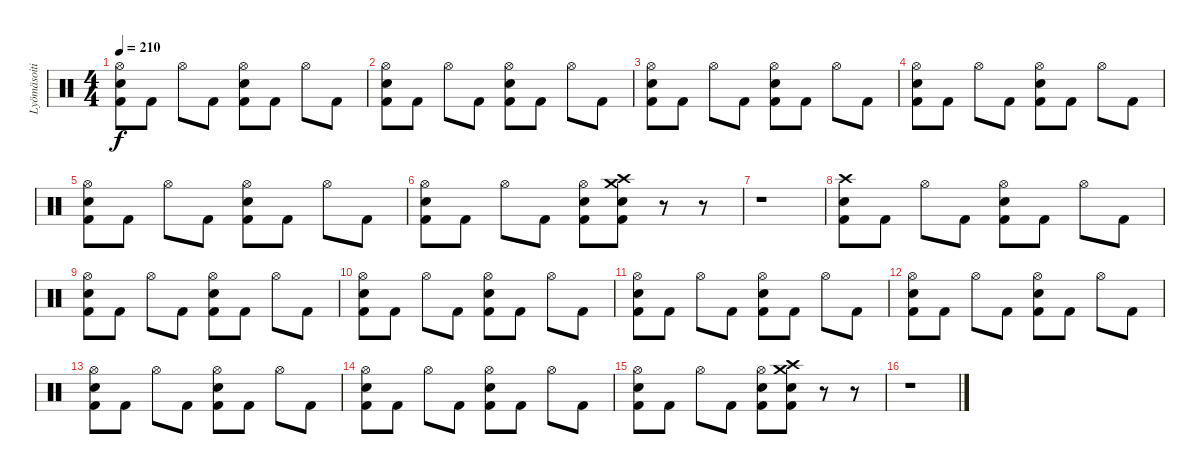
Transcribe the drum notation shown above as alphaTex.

\track ("Lyömäsoitin" "Lyömäsoiti") {instrument percussion}
\staff {score}
\articulation defaults
\ts (4 4)
\tempo 210
\clef neutral
\ks c
("Hi-Hat (open)" "Electric Snare (hit)" "Kick (hit) 2").8{dy f} "Kick (hit) 2".8 "Hi-Hat (open)".8 "Kick (hit) 2".8 ("Hi-Hat (open)" "Electric Snare (hit)" "Kick (hit) 2").8 "Kick (hit) 2".8 "Hi-Hat (open)".8 "Kick (hit) 2".8 |
("Hi-Hat (open)" "Electric Snare (hit)" "Kick (hit) 2").8 "Kick (hit) 2".8 "Hi-Hat (open)".8 "Kick (hit) 2".8 ("Hi-Hat (open)" "Electric Snare (hit)" "Kick (hit) 2").8 "Kick (hit) 2".8 "Hi-Hat (open)".8 "Kick (hit) 2".8 |
("Hi-Hat (open)" "Electric Snare (hit)" "Kick (hit) 2").8 "Kick (hit) 2".8 "Hi-Hat (open)".8 "Kick (hit) 2".8 ("Hi-Hat (open)" "Electric Snare (hit)" "Kick (hit) 2").8 "Kick (hit) 2".8 "Hi-Hat (open)".8 "Kick (hit) 2".8 |
("Hi-Hat (open)" "Electric Snare (hit)" "Kick (hit) 2").8 "Kick (hit) 2".8 "Hi-Hat (open)".8 "Kick (hit) 2".8 ("Hi-Hat (open)" "Electric Snare (hit)" "Kick (hit) 2").8 "Kick (hit) 2".8 "Hi-Hat (open)".8 "Kick (hit) 2".8 |
("Hi-Hat (open)" "Electric Snare (hit)" "Kick (hit) 2").8 "Kick (hit) 2".8 "Hi-Hat (open)".8 "Kick (hit) 2".8 ("Hi-Hat (open)" "Electric Snare (hit)" "Kick (hit) 2").8 "Kick (hit) 2".8 "Hi-Hat (open)".8 "Kick (hit) 2".8 |
("Hi-Hat (open)" "Electric Snare (hit)" "Kick (hit) 2").8 "Kick (hit) 2".8 "Hi-Hat (open)".8 "Kick (hit) 2".8 ("Hi-Hat (open)" "Electric Snare (hit)" "Kick (hit) 2").8 ("Crash high (hit)" "Crash medium (hit)" "Electric Snare (hit)" "Kick (hit) 2").8 r.8 r.8 |
r.1 |
("Crash high (hit)" "Electric Snare (hit)" "Kick (hit) 2").8 "Kick (hit) 2".8 "Hi-Hat (open)".8 "Kick (hit) 2".8 ("Hi-Hat (open)" "Electric Snare (hit)" "Kick (hit) 2").8 "Kick (hit) 2".8 "Hi-Hat (open)".8 "Kick (hit) 2".8 |
("Hi-Hat (open)" "Electric Snare (hit)" "Kick (hit) 2").8 "Kick (hit) 2".8 "Hi-Hat (open)".8 "Kick (hit) 2".8 ("Hi-Hat (open)" "Electric Snare (hit)" "Kick (hit) 2").8 "Kick (hit) 2".8 "Hi-Hat (open)".8 "Kick (hit) 2".8 |
("Hi-Hat (open)" "Electric Snare (hit)" "Kick (hit) 2").8 "Kick (hit) 2".8 "Hi-Hat (open)".8 "Kick (hit) 2".8 ("Hi-Hat (open)" "Electric Snare (hit)" "Kick (hit) 2").8 "Kick (hit) 2".8 "Hi-Hat (open)".8 "Kick (hit) 2".8 |
("Hi-Hat (open)" "Electric Snare (hit)" "Kick (hit) 2").8 "Kick (hit) 2".8 "Hi-Hat (open)".8 "Kick (hit) 2".8 ("Hi-Hat (open)" "Electric Snare (hit)" "Kick (hit) 2").8 "Kick (hit) 2".8 "Hi-Hat (open)".8 "Kick (hit) 2".8 |
("Hi-Hat (open)" "Electric Snare (hit)" "Kick (hit) 2").8 "Kick (hit) 2".8 "Hi-Hat (open)".8 "Kick (hit) 2".8 ("Hi-Hat (open)" "Electric Snare (hit)" "Kick (hit) 2").8 "Kick (hit) 2".8 "Hi-Hat (open)".8 "Kick (hit) 2".8 |
("Hi-Hat (open)" "Electric Snare (hit)" "Kick (hit) 2").8 "Kick (hit) 2".8 "Hi-Hat (open)".8 "Kick (hit) 2".8 ("Hi-Hat (open)" "Electric Snare (hit)" "Kick (hit) 2").8 "Kick (hit) 2".8 "Hi-Hat (open)".8 "Kick (hit) 2".8 |
("Hi-Hat (open)" "Electric Snare (hit)" "Kick (hit) 2").8 "Kick (hit) 2".8 "Hi-Hat (open)".8 "Kick (hit) 2".8 ("Hi-Hat (open)" "Electric Snare (hit)" "Kick (hit) 2").8 "Kick (hit) 2".8 "Hi-Hat (open)".8 "Kick (hit) 2".8 |
("Hi-Hat (open)" "Electric Snare (hit)" "Kick (hit) 2").8 "Kick (hit) 2".8 "Hi-Hat (open)".8 "Kick (hit) 2".8 ("Hi-Hat (open)" "Electric Snare (hit)" "Kick (hit) 2").8 ("Crash high (hit)" "Crash medium (hit)" "Electric Snare (hit)" "Kick (hit) 2").8 r.8 r.8 |
r.1
